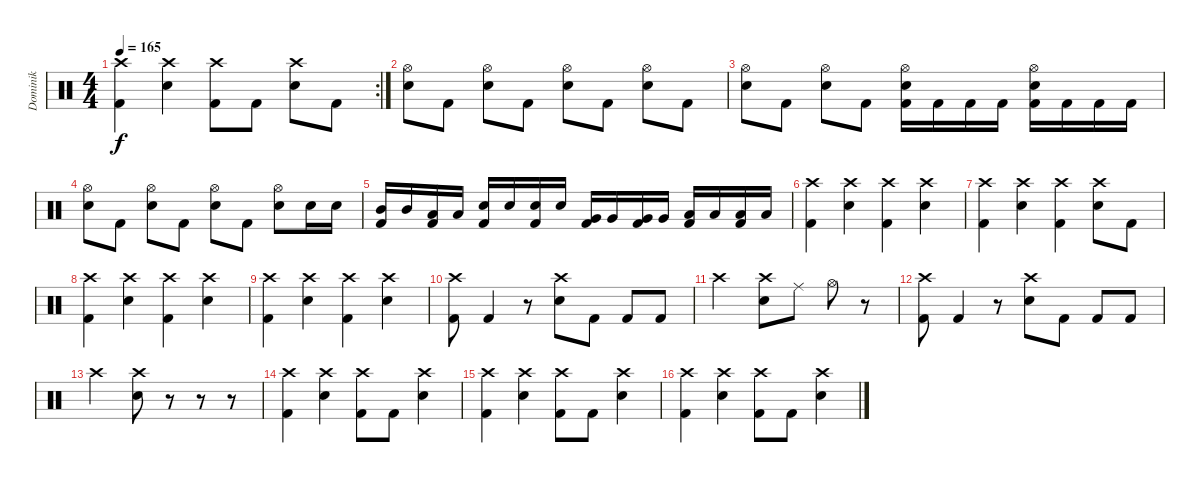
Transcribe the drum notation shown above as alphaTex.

\track ("Dominik" "Dominik") {instrument percussion}
\staff {score}
\articulation defaults
\rc 2
\ts (4 4)
\tempo 165
\clef neutral
\ks c
("Crash high (hit)" "Kick (hit) 2").4{dy f} ("Crash high (hit)" "Electric Snare (hit)").4 ("Crash high (hit)" "Kick (hit) 2").8 "Kick (hit) 2".8 ("Crash high (hit)" "Electric Snare (hit)").8 "Kick (hit) 2".8 |
("Hi-Hat (open)" "Electric Snare (hit)").8 "Kick (hit) 2".8 ("Hi-Hat (open)" "Electric Snare (hit)").8 "Kick (hit) 2".8 ("Hi-Hat (open)" "Electric Snare (hit)").8 "Kick (hit) 2".8 ("Hi-Hat (open)" "Electric Snare (hit)").8 "Kick (hit) 2".8 |
("Hi-Hat (open)" "Electric Snare (hit)").8 "Kick (hit) 2".8 ("Hi-Hat (open)" "Electric Snare (hit)").8 "Kick (hit) 2".8 ("Hi-Hat (open)" "Electric Snare (hit)" "Kick (hit) 2").16 "Kick (hit) 2".16 "Kick (hit) 2".16 "Kick (hit) 2".16 ("Hi-Hat (open)" "Electric Snare (hit)" "Kick (hit) 2").16 "Kick (hit) 2".16 "Kick (hit) 2".16 "Kick (hit) 2".16 |
("Hi-Hat (open)" "Electric Snare (hit)").8 "Kick (hit) 2".8 ("Hi-Hat (open)" "Electric Snare (hit)").8 "Kick (hit) 2".8 ("Hi-Hat (open)" "Electric Snare (hit)").8 "Kick (hit) 2".8 ("Hi-Hat (open)" "Electric Snare (hit)").8 "Electric Snare (hit)".16 "Electric Snare (hit)".16 |
("Mid Tom (hit)" "Kick (hit) 2").16 "Mid Tom (hit)".16 ("Low Tom (hit)" "Kick (hit) 2").16 "Low Tom (hit)".16 ("Electric Snare (hit)" "Kick (hit) 2").16 "Electric Snare (hit)".16 ("Electric Snare (hit)" "Kick (hit) 2").16 "Electric Snare (hit)".16 ("Very Low Tom (hit)" "Kick (hit) 2").16 "Very Low Tom (hit)".16 ("Very Low Tom (hit)" "Kick (hit) 2").16 "Very Low Tom (hit)".16 ("Low Floor Tom (hit)" "Kick (hit) 2").16 "Low Floor Tom (hit)".16 ("Low Floor Tom (hit)" "Kick (hit) 2").16 "Low Floor Tom (hit)".16 |
("Crash high (hit)" "Kick (hit) 2").4 ("Crash high (hit)" "Electric Snare (hit)").4 ("Crash high (hit)" "Kick (hit) 2").4 ("Crash high (hit)" "Electric Snare (hit)").4 |
("Crash high (hit)" "Kick (hit) 2").4 ("Crash high (hit)" "Electric Snare (hit)").4 ("Crash high (hit)" "Kick (hit) 2").4 ("Crash high (hit)" "Electric Snare (hit)").8 "Kick (hit) 2".8 |
("Crash high (hit)" "Kick (hit) 2").4 ("Crash high (hit)" "Electric Snare (hit)").4 ("Crash high (hit)" "Kick (hit) 2").4 ("Crash high (hit)" "Electric Snare (hit)").4 |
("Crash high (hit)" "Kick (hit) 2").4 ("Crash high (hit)" "Electric Snare (hit)").4 ("Crash high (hit)" "Kick (hit) 2").4 ("Crash high (hit)" "Electric Snare (hit)").4 |
("Crash high (hit)" "Kick (hit) 2").8 "Kick (hit) 2".4 r.8 ("Crash high (hit)" "Electric Snare (hit)").8 "Kick (hit) 2".8 "Kick (hit) 2".8 "Kick (hit) 2".8 |
"Crash high (hit)".2 ("Crash high (hit)" "Electric Snare (hit)").8 "Ride (middle)".8 "Hi-Hat (open)".8 r.8 |
("Crash high (hit)" "Kick (hit) 2").8 "Kick (hit) 2".4 r.8 ("Crash high (hit)" "Electric Snare (hit)").8 "Kick (hit) 2".8 "Kick (hit) 2".8 "Kick (hit) 2".8 |
"Crash high (hit)".2 ("Crash high (hit)" "Electric Snare (hit)").8 r.8 r.8 r.8 |
("Crash high (hit)" "Kick (hit) 2").4 ("Crash high (hit)" "Electric Snare (hit)").4 ("Crash high (hit)" "Kick (hit) 2").8 "Kick (hit) 2".8 ("Crash high (hit)" "Electric Snare (hit)").4 |
("Crash high (hit)" "Kick (hit) 2").4 ("Crash high (hit)" "Electric Snare (hit)").4 ("Crash high (hit)" "Kick (hit) 2").8 "Kick (hit) 2".8 ("Crash high (hit)" "Electric Snare (hit)").4 |
("Crash high (hit)" "Kick (hit) 2").4 ("Crash high (hit)" "Electric Snare (hit)").4 ("Crash high (hit)" "Kick (hit) 2").8 "Kick (hit) 2".8 ("Crash high (hit)" "Electric Snare (hit)").4
